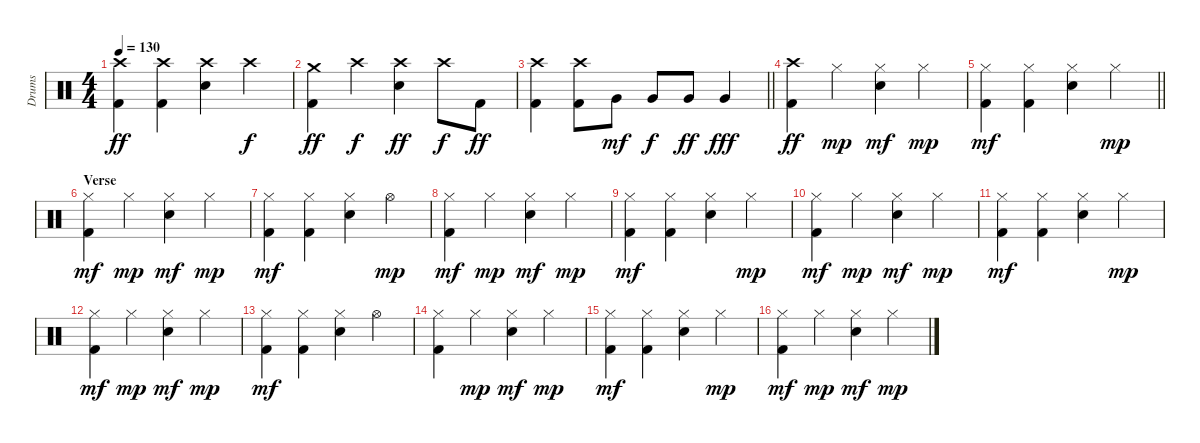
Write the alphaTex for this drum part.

\track ("Drums" "Drums") {instrument percussion}
\staff {score}
\articulation defaults
\ts (4 4)
\tempo 130
\clef neutral
\ks c
("Crash high (hit)" "Kick (hit) 2").4{dy ff} ("Crash high (hit)" "Kick (hit) 2").4 ("Crash high (hit)" "Snare (hit) 2").4 "Crash high (hit)".4{dy f} |
("Crash medium (hit)" "Kick (hit) 2").4{dy ff} "Crash high (hit)".4{dy f} ("Crash high (hit)" "Snare (hit) 2").4{dy ff} "Crash high (hit)".8{dy f} "Kick (hit) 2".8{dy ff} |
\barLineRight lightlight
("Crash high (hit)" "Kick (hit) 2").4 ("Crash high (hit)" "Kick (hit) 2").8 "Very Low Tom (hit)".8{dy mf} "Very Low Tom (hit)".8{dy f} "Very Low Tom (hit)".8{dy ff} "Very Low Tom (hit)".4{dy fff} |
("Crash high (hit)" "Kick (hit) 2").4{dy ff} "Hi-Hat (closed)".4{dy mp} ("Hi-Hat (closed)" "Snare (hit) 2").4{dy mf} "Hi-Hat (closed)".4{dy mp} |
\barLineRight lightlight
("Hi-Hat (closed)" "Kick (hit) 2").4{dy mf} ("Hi-Hat (closed)" "Kick (hit) 2").4 ("Hi-Hat (closed)" "Snare (hit) 2").4 "Hi-Hat (closed)".4{dy mp} |
\section ("" "Verse")
("Hi-Hat (closed)" "Kick (hit) 2").4{dy mf} "Hi-Hat (closed)".4{dy mp} ("Hi-Hat (closed)" "Snare (hit) 2").4{dy mf} "Hi-Hat (closed)".4{dy mp} |
("Hi-Hat (closed)" "Kick (hit) 2").4{dy mf} ("Hi-Hat (closed)" "Kick (hit) 2").4 ("Hi-Hat (closed)" "Snare (hit) 2").4 "Hi-Hat (open)".4{dy mp} |
("Hi-Hat (closed)" "Kick (hit) 2").4{dy mf} "Hi-Hat (closed)".4{dy mp} ("Hi-Hat (closed)" "Snare (hit) 2").4{dy mf} "Hi-Hat (closed)".4{dy mp} |
("Hi-Hat (closed)" "Kick (hit) 2").4{dy mf} ("Hi-Hat (closed)" "Kick (hit) 2").4 ("Hi-Hat (closed)" "Snare (hit) 2").4 "Hi-Hat (closed)".4{dy mp} |
("Hi-Hat (closed)" "Kick (hit) 2").4{dy mf} "Hi-Hat (closed)".4{dy mp} ("Hi-Hat (closed)" "Snare (hit) 2").4{dy mf} "Hi-Hat (closed)".4{dy mp} |
("Hi-Hat (closed)" "Kick (hit) 2").4{dy mf} ("Hi-Hat (closed)" "Kick (hit) 2").4 ("Hi-Hat (closed)" "Snare (hit) 2").4 "Hi-Hat (closed)".4{dy mp} |
("Hi-Hat (closed)" "Kick (hit) 2").4{dy mf} "Hi-Hat (closed)".4{dy mp} ("Hi-Hat (closed)" "Snare (hit) 2").4{dy mf} "Hi-Hat (closed)".4{dy mp} |
("Hi-Hat (closed)" "Kick (hit) 2").4{dy mf} ("Hi-Hat (closed)" "Kick (hit) 2").4 ("Hi-Hat (closed)" "Snare (hit) 2").4 "Hi-Hat (open)".4 |
("Hi-Hat (closed)" "Kick (hit) 2").4 "Hi-Hat (closed)".4{dy mp} ("Hi-Hat (closed)" "Snare (hit) 2").4{dy mf} "Hi-Hat (closed)".4{dy mp} |
("Hi-Hat (closed)" "Kick (hit) 2").4{dy mf} ("Hi-Hat (closed)" "Kick (hit) 2").4 ("Hi-Hat (closed)" "Snare (hit) 2").4 "Hi-Hat (closed)".4{dy mp} |
("Hi-Hat (closed)" "Kick (hit) 2").4{dy mf} "Hi-Hat (closed)".4{dy mp} ("Hi-Hat (closed)" "Snare (hit) 2").4{dy mf} "Hi-Hat (closed)".4{dy mp}
